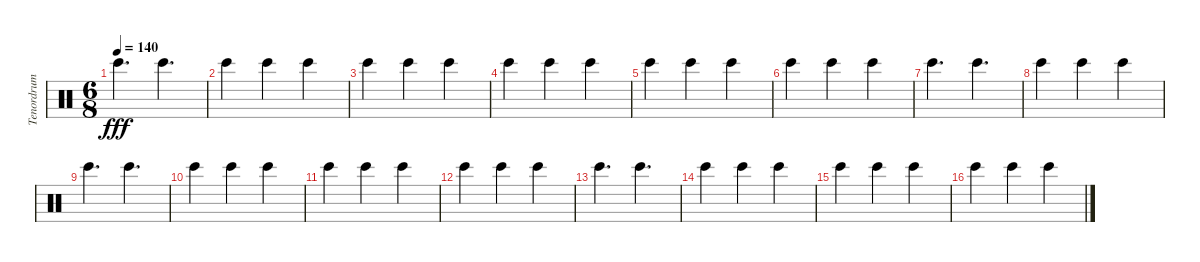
\track ("Tenordrum" "Tenordrum") {instrument percussion}
\staff {score}
\articulation defaults
\ts (6 8)
\tempo 140
\clef neutral
\ks c "Bongo High (hit)".4{d dy fff} "Bongo High (hit)".4{d}
|
"Bongo High (hit)".4 "Bongo High (hit)".4 "Bongo High (hit)".4 |
"Bongo High (hit)".4 "Bongo High (hit)".4 "Bongo High (hit)".4 |
"Bongo High (hit)".4 "Bongo High (hit)".4 "Bongo High (hit)".4 |
"Bongo High (hit)".4 "Bongo High (hit)".4 "Bongo High (hit)".4 |
"Bongo High (hit)".4 "Bongo High (hit)".4 "Bongo High (hit)".4 |
"Bongo High (hit)".4{d} "Bongo High (hit)".4{d} |
"Bongo High (hit)".4 "Bongo High (hit)".4 "Bongo High (hit)".4 |
"Bongo High (hit)".4{d} "Bongo High (hit)".4{d} |
"Bongo High (hit)".4 "Bongo High (hit)".4 "Bongo High (hit)".4 |
"Bongo High (hit)".4 "Bongo High (hit)".4 "Bongo High (hit)".4 |
"Bongo High (hit)".4 "Bongo High (hit)".4 "Bongo High (hit)".4 |
"Bongo High (hit)".4{d} "Bongo High (hit)".4{d} |
"Bongo High (hit)".4 "Bongo High (hit)".4 "Bongo High (hit)".4 |
"Bongo High (hit)".4 "Bongo High (hit)".4 "Bongo High (hit)".4 |
"Bongo High (hit)".4 "Bongo High (hit)".4 "Bongo High (hit)".4
